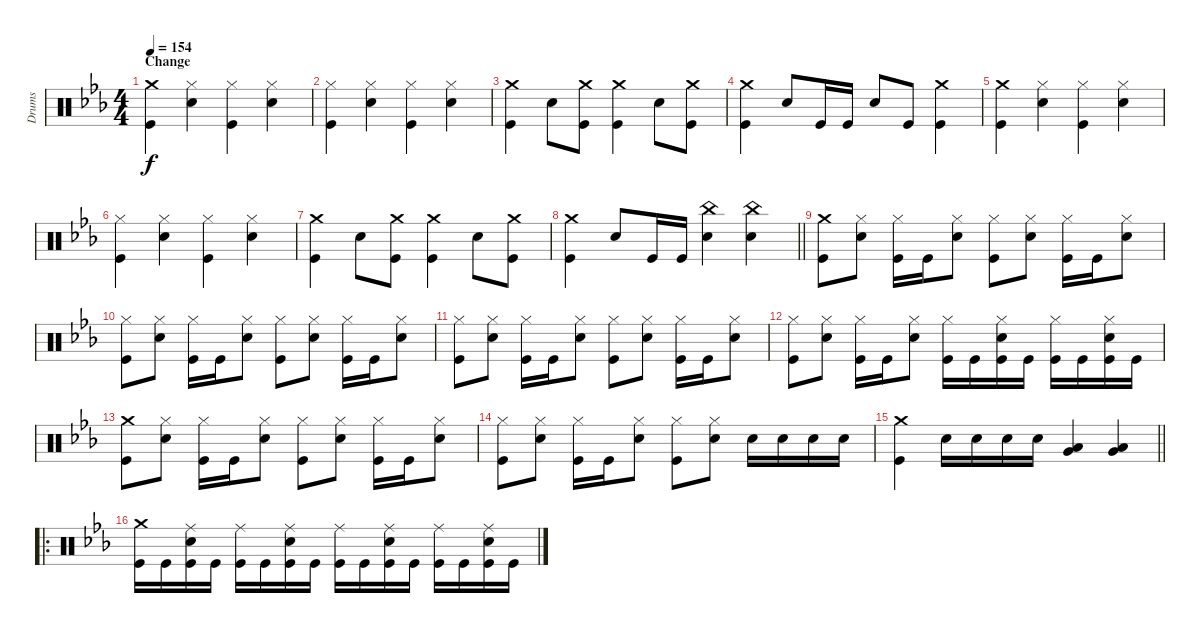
\track ("Drums" "Drums") {instrument percussion}
\staff {score}
\articulation defaults
\ts (4 4)
\section ("" "Change")
\tempo 154
\clef neutral
\ks cminor
("Crash medium (hit)" "Kick (hit)").4{dy f} ("Hi-Hat (closed)" "Snare (hit) 2").4 ("Hi-Hat (closed)" "Kick (hit)").4 ("Hi-Hat (closed)" "Snare (hit) 2").4 |
("Hi-Hat (closed)" "Kick (hit)").4 ("Hi-Hat (closed)" "Snare (hit) 2").4 ("Hi-Hat (closed)" "Kick (hit)").4 ("Hi-Hat (closed)" "Snare (hit) 2").4 |
("Crash medium (hit)" "Kick (hit)").4 "Snare (hit) 2".8 ("Crash medium (hit)" "Kick (hit)").8 ("Crash medium (hit)" "Kick (hit)").4 "Snare (hit) 2".8 ("Crash medium (hit)" "Kick (hit)").8 |
("Crash medium (hit)" "Kick (hit)").4 "Snare (hit) 2".8 "Kick (hit)".16 "Kick (hit)".16 "Snare (hit) 2".8 "Kick (hit)".8 ("Crash medium (hit)" "Kick (hit)").4 |
("Crash medium (hit)" "Kick (hit)").4 ("Hi-Hat (closed)" "Snare (hit) 2").4 ("Hi-Hat (closed)" "Kick (hit)").4 ("Hi-Hat (closed)" "Snare (hit) 2").4 |
("Hi-Hat (closed)" "Kick (hit)").4 ("Hi-Hat (closed)" "Snare (hit) 2").4 ("Hi-Hat (closed)" "Kick (hit)").4 ("Hi-Hat (closed)" "Snare (hit) 2").4 |
("Crash medium (hit)" "Kick (hit)").4 "Snare (hit) 2".8 ("Crash medium (hit)" "Kick (hit)").8 ("Crash medium (hit)" "Kick (hit)").4 "Snare (hit) 2".8 ("Crash medium (hit)" "Kick (hit)").8 |
\barLineRight lightlight
("Crash medium (hit)" "Kick (hit)").4 "Snare (hit) 2".8 "Kick (hit)".16 "Kick (hit)".16 ("China (hit)" "Snare (hit) 2").4 ("China (hit)" "Snare (hit) 2").4 |
\section ("" "")
("Crash medium (hit)" "Kick (hit)").8 ("Hi-Hat (closed)" "Snare (hit) 2").8 ("Hi-Hat (closed)" "Kick (hit)").16 "Kick (hit)".16 ("Hi-Hat (closed)" "Snare (hit) 2").8 ("Hi-Hat (closed)" "Kick (hit)").8 ("Hi-Hat (closed)" "Snare (hit) 2").8 ("Hi-Hat (closed)" "Kick (hit)").16 "Kick (hit)".16 ("Hi-Hat (closed)" "Snare (hit) 2").8 |
("Hi-Hat (closed)" "Kick (hit)").8 ("Hi-Hat (closed)" "Snare (hit) 2").8 ("Hi-Hat (closed)" "Kick (hit)").16 "Kick (hit)".16 ("Hi-Hat (closed)" "Snare (hit) 2").8 ("Hi-Hat (closed)" "Kick (hit)").8 ("Hi-Hat (closed)" "Snare (hit) 2").8 ("Hi-Hat (closed)" "Kick (hit)").16 "Kick (hit)".16 ("Hi-Hat (closed)" "Snare (hit) 2").8 |
("Hi-Hat (closed)" "Kick (hit)").8 ("Hi-Hat (closed)" "Snare (hit) 2").8 ("Hi-Hat (closed)" "Kick (hit)").16 "Kick (hit)".16 ("Hi-Hat (closed)" "Snare (hit) 2").8 ("Hi-Hat (closed)" "Kick (hit)").8 ("Hi-Hat (closed)" "Snare (hit) 2").8 ("Hi-Hat (closed)" "Kick (hit)").16 "Kick (hit)".16 ("Hi-Hat (closed)" "Snare (hit) 2").8 |
("Hi-Hat (closed)" "Kick (hit)").8 ("Hi-Hat (closed)" "Snare (hit) 2").8 ("Hi-Hat (closed)" "Kick (hit)").16 "Kick (hit)".16 ("Hi-Hat (closed)" "Snare (hit) 2").8 ("Hi-Hat (closed)" "Kick (hit)").16 "Kick (hit)".16 ("Hi-Hat (closed)" "Snare (hit) 2" "Kick (hit)").16 "Kick (hit)".16 ("Hi-Hat (closed)" "Kick (hit)").16 "Kick (hit)".16 ("Hi-Hat (closed)" "Snare (hit) 2" "Kick (hit)").16 "Kick (hit)".16 |
("Crash medium (hit)" "Kick (hit)").8 ("Hi-Hat (closed)" "Snare (hit) 2").8 ("Hi-Hat (closed)" "Kick (hit)").16 "Kick (hit)".16 ("Hi-Hat (closed)" "Snare (hit) 2").8 ("Hi-Hat (closed)" "Kick (hit)").8 ("Hi-Hat (closed)" "Snare (hit) 2").8 ("Hi-Hat (closed)" "Kick (hit)").16 "Kick (hit)".16 ("Hi-Hat (closed)" "Snare (hit) 2").8 |
("Hi-Hat (closed)" "Kick (hit)").8 ("Hi-Hat (closed)" "Snare (hit) 2").8 ("Hi-Hat (closed)" "Kick (hit)").16 "Kick (hit)".16 ("Hi-Hat (closed)" "Snare (hit) 2").8 ("Hi-Hat (closed)" "Kick (hit)").8 ("Hi-Hat (closed)" "Snare (hit) 2").8 "Snare (hit) 2".16 "Snare (hit) 2".16 "Snare (hit) 2".16 "Snare (hit) 2".16 |
\barLineRight lightlight
("Crash medium (hit)" "Kick (hit)").4 "Snare (hit) 2".16 "Snare (hit) 2".16 "Snare (hit) 2".16 "Snare (hit) 2".16 ("Low Tom (hit)" "Very Low Tom (hit)").4 ("Very Low Tom (hit)" "Low Floor Tom (hit)").4 |
\ro
\section ("" "")
("Crash medium (hit)" "Kick (hit)").16 "Kick (hit)".16 ("Ride (middle)" "Snare (hit) 2" "Kick (hit)").16 "Kick (hit)".16 ("Ride (middle)" "Kick (hit)").16 "Kick (hit)".16 ("Ride (middle)" "Snare (hit) 2" "Kick (hit)").16 "Kick (hit)".16 ("Ride (middle)" "Kick (hit)").16 "Kick (hit)".16 ("Ride (middle)" "Snare (hit) 2" "Kick (hit)").16 "Kick (hit)".16 ("Ride (middle)" "Kick (hit)").16 "Kick (hit)".16 ("Ride (middle)" "Snare (hit) 2" "Kick (hit)").16 "Kick (hit)".16
